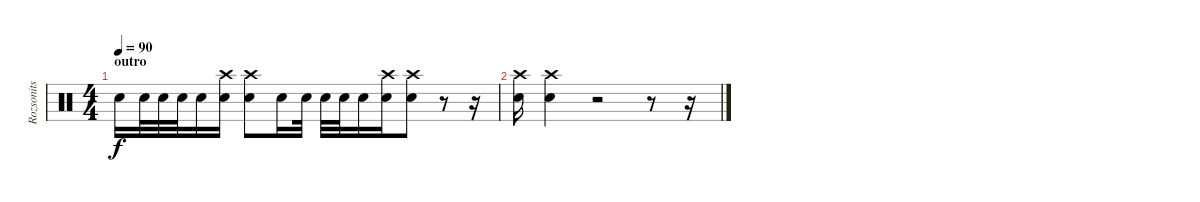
\track ("Rozsonits T. dobok" "Rozsonits ") {instrument percussion}
\staff {score}
\articulation defaults
\ts (4 4)
\section ("" "outro")
\tempo 90
\clef neutral
\ks c "Snare (hit) 2".16{dy f} "Snare (hit) 2".32 "Snare (hit) 2".32 "Snare (hit) 2".32 "Snare (hit) 2".16
("Snare (hit) 2" "Crash high (hit)").16 ("Snare (hit) 2" "Crash high (hit)").8 "Snare (hit) 2".16 "Snare (hit) 2".32 "Snare (hit) 2".32 "Snare (hit) 2".32 "Snare (hit) 2".16 ("Snare (hit) 2" "Crash high (hit)").16 ("Snare (hit) 2" "Crash high (hit)").8 r.8 r.16 |
("Snare (hit) 2" "Crash high (hit)").16 ("Snare (hit) 2" "Crash high (hit)").4 r.2 r.8 r.16
